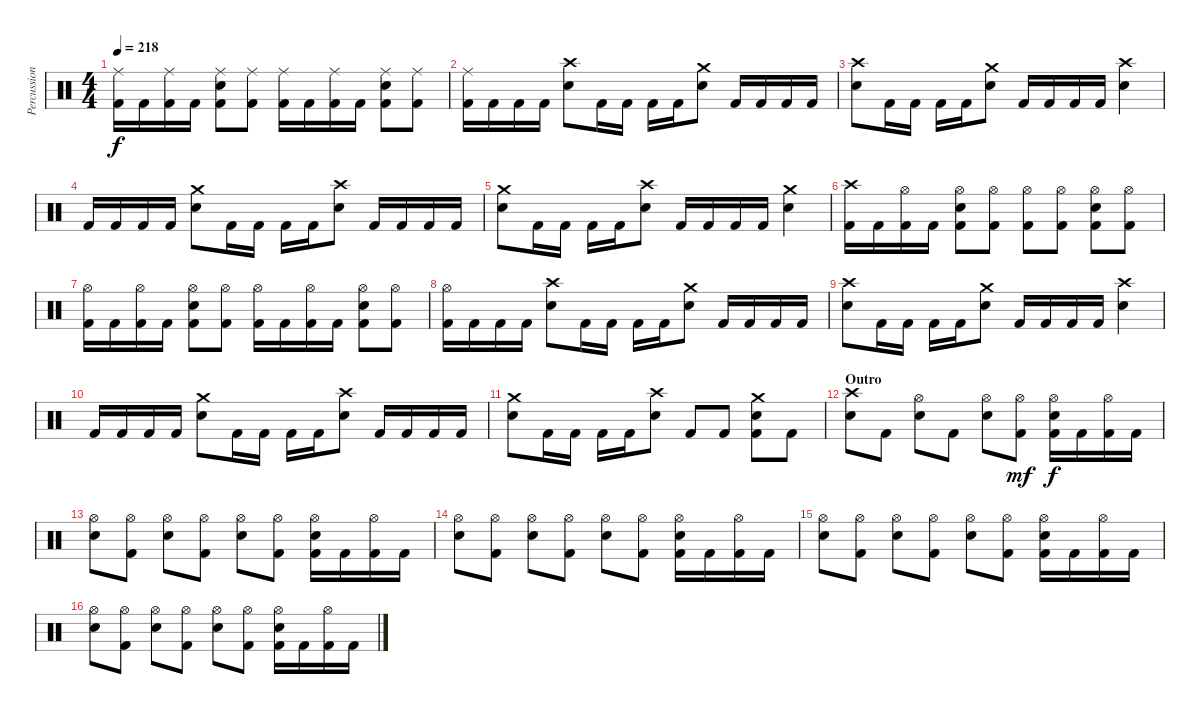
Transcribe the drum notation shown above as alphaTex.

\track ("Percussion" "Percussion") {instrument percussion}
\staff {score}
\articulation defaults
\ts (4 4)
\tempo 218
\clef neutral
\ks c
("Ride (middle)" "Kick (hit) 2").16{dy f} "Kick (hit) 2".16 ("Ride (middle)" "Kick (hit) 2").16 "Kick (hit) 2".16 ("Ride (middle)" "Electric Snare (hit)" "Kick (hit) 2").8 ("Ride (middle)" "Kick (hit) 2").8 ("Ride (middle)" "Kick (hit) 2").16 "Kick (hit) 2".16 ("Ride (middle)" "Kick (hit) 2").16 "Kick (hit) 2".16 ("Ride (middle)" "Electric Snare (hit)" "Kick (hit) 2").8 ("Ride (middle)" "Kick (hit) 2").8 |
("Ride (middle)" "Kick (hit) 2").16 "Kick (hit) 2".16 "Kick (hit) 2".16 "Kick (hit) 2".16 ("Crash high (hit)" "Electric Snare (hit)").8 "Kick (hit) 2".16 "Kick (hit) 2".16 "Kick (hit) 2".16 "Kick (hit) 2".16 ("Crash medium (hit)" "Electric Snare (hit)").8 "Kick (hit) 2".16 "Kick (hit) 2".16 "Kick (hit) 2".16 "Kick (hit) 2".16 |
("Crash high (hit)" "Electric Snare (hit)").8 "Kick (hit) 2".16 "Kick (hit) 2".16 "Kick (hit) 2".16 "Kick (hit) 2".16 ("Crash medium (hit)" "Electric Snare (hit)").8 "Kick (hit) 2".16 "Kick (hit) 2".16 "Kick (hit) 2".16 "Kick (hit) 2".16 ("Crash high (hit)" "Electric Snare (hit)").4 |
"Kick (hit) 2".16 "Kick (hit) 2".16 "Kick (hit) 2".16 "Kick (hit) 2".16 ("Crash medium (hit)" "Electric Snare (hit)").8 "Kick (hit) 2".16 "Kick (hit) 2".16 "Kick (hit) 2".16 "Kick (hit) 2".16 ("Crash high (hit)" "Electric Snare (hit)").8 "Kick (hit) 2".16 "Kick (hit) 2".16 "Kick (hit) 2".16 "Kick (hit) 2".16 |
("Crash medium (hit)" "Electric Snare (hit)").8 "Kick (hit) 2".16 "Kick (hit) 2".16 "Kick (hit) 2".16 "Kick (hit) 2".16 ("Crash high (hit)" "Electric Snare (hit)").8 "Kick (hit) 2".16 "Kick (hit) 2".16 "Kick (hit) 2".16 "Kick (hit) 2".16 ("Crash medium (hit)" "Electric Snare (hit)").4 |
("Crash high (hit)" "Kick (hit) 2").16 "Kick (hit) 2".16 ("Hi-Hat (open)" "Kick (hit) 2").16 "Kick (hit) 2".16 ("Hi-Hat (open)" "Electric Snare (hit)" "Kick (hit) 2").8 ("Hi-Hat (open)" "Kick (hit) 2").8 ("Hi-Hat (open)" "Kick (hit) 2").8 ("Hi-Hat (open)" "Kick (hit) 2").8 ("Hi-Hat (open)" "Electric Snare (hit)" "Kick (hit) 2").8 ("Hi-Hat (open)" "Kick (hit) 2").8 |
("Hi-Hat (open)" "Kick (hit) 2").16 "Kick (hit) 2".16 ("Hi-Hat (open)" "Kick (hit) 2").16 "Kick (hit) 2".16 ("Hi-Hat (open)" "Electric Snare (hit)" "Kick (hit) 2").8 ("Hi-Hat (open)" "Kick (hit) 2").8 ("Hi-Hat (open)" "Kick (hit) 2").16 "Kick (hit) 2".16 ("Hi-Hat (open)" "Kick (hit) 2").16 "Kick (hit) 2".16 ("Hi-Hat (open)" "Electric Snare (hit)" "Kick (hit) 2").8 ("Hi-Hat (open)" "Kick (hit) 2").8 |
("Hi-Hat (open)" "Kick (hit) 2").16 "Kick (hit) 2".16 "Kick (hit) 2".16 "Kick (hit) 2".16 ("Crash high (hit)" "Electric Snare (hit)").8 "Kick (hit) 2".16 "Kick (hit) 2".16 "Kick (hit) 2".16 "Kick (hit) 2".16 ("Crash medium (hit)" "Electric Snare (hit)").8 "Kick (hit) 2".16 "Kick (hit) 2".16 "Kick (hit) 2".16 "Kick (hit) 2".16 |
("Crash high (hit)" "Electric Snare (hit)").8 "Kick (hit) 2".16 "Kick (hit) 2".16 "Kick (hit) 2".16 "Kick (hit) 2".16 ("Crash medium (hit)" "Electric Snare (hit)").8 "Kick (hit) 2".16 "Kick (hit) 2".16 "Kick (hit) 2".16 "Kick (hit) 2".16 ("Crash high (hit)" "Electric Snare (hit)").4 |
"Kick (hit) 2".16 "Kick (hit) 2".16 "Kick (hit) 2".16 "Kick (hit) 2".16 ("Crash medium (hit)" "Electric Snare (hit)").8 "Kick (hit) 2".16 "Kick (hit) 2".16 "Kick (hit) 2".16 "Kick (hit) 2".16 ("Crash high (hit)" "Electric Snare (hit)").8 "Kick (hit) 2".16 "Kick (hit) 2".16 "Kick (hit) 2".16 "Kick (hit) 2".16 |
("Crash medium (hit)" "Electric Snare (hit)").8 "Kick (hit) 2".16 "Kick (hit) 2".16 "Kick (hit) 2".16 "Kick (hit) 2".16 ("Crash high (hit)" "Electric Snare (hit)").8 "Kick (hit) 2".8 "Kick (hit) 2".8 ("Crash medium (hit)" "Electric Snare (hit)" "Kick (hit) 2").8 "Kick (hit) 2".8 |
\section ("" "Outro")
("Crash high (hit)" "Electric Snare (hit)").8 "Kick (hit) 2".8 ("Hi-Hat (open)" "Electric Snare (hit)").8 "Kick (hit) 2".8 ("Hi-Hat (open)" "Electric Snare (hit)").8 ("Hi-Hat (open)" "Kick (hit) 2").8{dy mf} ("Hi-Hat (open)" "Electric Snare (hit)" "Kick (hit) 2").16{dy f} "Kick (hit) 2".16 ("Hi-Hat (open)" "Kick (hit) 2").16 "Kick (hit) 2".16 |
("Hi-Hat (open)" "Electric Snare (hit)").8 ("Hi-Hat (open)" "Kick (hit) 2").8 ("Hi-Hat (open)" "Electric Snare (hit)").8 ("Hi-Hat (open)" "Kick (hit) 2").8 ("Hi-Hat (open)" "Electric Snare (hit)").8 ("Hi-Hat (open)" "Kick (hit) 2").8 ("Hi-Hat (open)" "Electric Snare (hit)" "Kick (hit) 2").16 "Kick (hit) 2".16 ("Hi-Hat (open)" "Kick (hit) 2").16 "Kick (hit) 2".16 |
("Hi-Hat (open)" "Electric Snare (hit)").8 ("Hi-Hat (open)" "Kick (hit) 2").8 ("Hi-Hat (open)" "Electric Snare (hit)").8 ("Hi-Hat (open)" "Kick (hit) 2").8 ("Hi-Hat (open)" "Electric Snare (hit)").8 ("Hi-Hat (open)" "Kick (hit) 2").8 ("Hi-Hat (open)" "Electric Snare (hit)" "Kick (hit) 2").16 "Kick (hit) 2".16 ("Hi-Hat (open)" "Kick (hit) 2").16 "Kick (hit) 2".16 |
("Hi-Hat (open)" "Electric Snare (hit)").8 ("Hi-Hat (open)" "Kick (hit) 2").8 ("Hi-Hat (open)" "Electric Snare (hit)").8 ("Hi-Hat (open)" "Kick (hit) 2").8 ("Hi-Hat (open)" "Electric Snare (hit)").8 ("Hi-Hat (open)" "Kick (hit) 2").8 ("Hi-Hat (open)" "Electric Snare (hit)" "Kick (hit) 2").16 "Kick (hit) 2".16 ("Hi-Hat (open)" "Kick (hit) 2").16 "Kick (hit) 2".16 |
("Hi-Hat (open)" "Electric Snare (hit)").8 ("Hi-Hat (open)" "Kick (hit) 2").8 ("Hi-Hat (open)" "Electric Snare (hit)").8 ("Hi-Hat (open)" "Kick (hit) 2").8 ("Hi-Hat (open)" "Electric Snare (hit)").8 ("Hi-Hat (open)" "Kick (hit) 2").8 ("Hi-Hat (open)" "Electric Snare (hit)" "Kick (hit) 2").16 "Kick (hit) 2".16 ("Hi-Hat (open)" "Kick (hit) 2").16 "Kick (hit) 2".16
